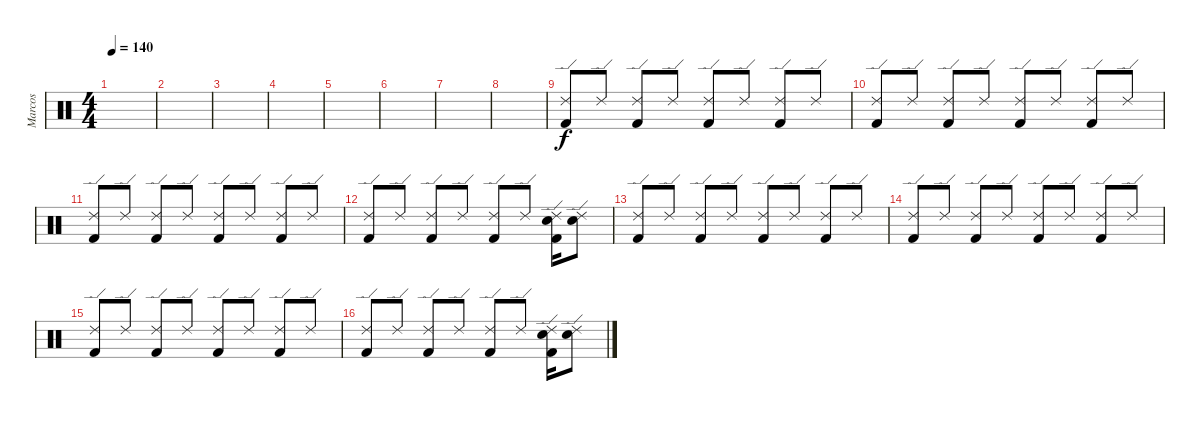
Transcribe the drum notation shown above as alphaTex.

\track ("Marcos" "Marcos") {instrument percussion}
\staff {score}
\articulation defaults
\ts (4 4)
\tempo 140
\clef neutral
\ks c
|
|
|
|
|
|
|
|
("Ride (edge) 2" "Kick (hit) 2").8 "Ride (edge) 2".8 ("Ride (edge) 2" "Kick (hit) 2").8 "Ride (edge) 2".8 ("Ride (edge) 2" "Kick (hit) 2").8 "Ride (edge) 2".8 ("Ride (edge) 2" "Kick (hit) 2").8 "Ride (edge) 2".8 |
("Ride (edge) 2" "Kick (hit) 2").8 "Ride (edge) 2".8 ("Ride (edge) 2" "Kick (hit) 2").8 "Ride (edge) 2".8 ("Ride (edge) 2" "Kick (hit) 2").8 "Ride (edge) 2".8 ("Ride (edge) 2" "Kick (hit) 2").8 "Ride (edge) 2".8 |
("Ride (edge) 2" "Kick (hit) 2").8 "Ride (edge) 2".8 ("Ride (edge) 2" "Kick (hit) 2").8 "Ride (edge) 2".8 ("Ride (edge) 2" "Kick (hit) 2").8 "Ride (edge) 2".8 ("Ride (edge) 2" "Kick (hit) 2").8 "Ride (edge) 2".8 |
("Ride (edge) 2" "Kick (hit) 2").8 "Ride (edge) 2".8 ("Ride (edge) 2" "Kick (hit) 2").8 "Ride (edge) 2".8 ("Ride (edge) 2" "Kick (hit) 2").8 "Ride (edge) 2".8 ("Ride (edge) 2" "Kick (hit) 2" "Electric Snare (hit)").16 ("Ride (edge) 2" "Electric Snare (hit)").8 |
("Ride (edge) 2" "Kick (hit) 2").8 "Ride (edge) 2".8 ("Ride (edge) 2" "Kick (hit) 2").8 "Ride (edge) 2".8 ("Ride (edge) 2" "Kick (hit) 2").8 "Ride (edge) 2".8 ("Ride (edge) 2" "Kick (hit) 2").8 "Ride (edge) 2".8 |
("Ride (edge) 2" "Kick (hit) 2").8 "Ride (edge) 2".8 ("Ride (edge) 2" "Kick (hit) 2").8 "Ride (edge) 2".8 ("Ride (edge) 2" "Kick (hit) 2").8 "Ride (edge) 2".8 ("Ride (edge) 2" "Kick (hit) 2").8 "Ride (edge) 2".8 |
("Ride (edge) 2" "Kick (hit) 2").8 "Ride (edge) 2".8 ("Ride (edge) 2" "Kick (hit) 2").8 "Ride (edge) 2".8 ("Ride (edge) 2" "Kick (hit) 2").8 "Ride (edge) 2".8 ("Ride (edge) 2" "Kick (hit) 2").8 "Ride (edge) 2".8 |
("Ride (edge) 2" "Kick (hit) 2").8 "Ride (edge) 2".8 ("Ride (edge) 2" "Kick (hit) 2").8 "Ride (edge) 2".8 ("Ride (edge) 2" "Kick (hit) 2").8 "Ride (edge) 2".8 ("Ride (edge) 2" "Kick (hit) 2" "Electric Snare (hit)").16 ("Ride (edge) 2" "Electric Snare (hit)").8
